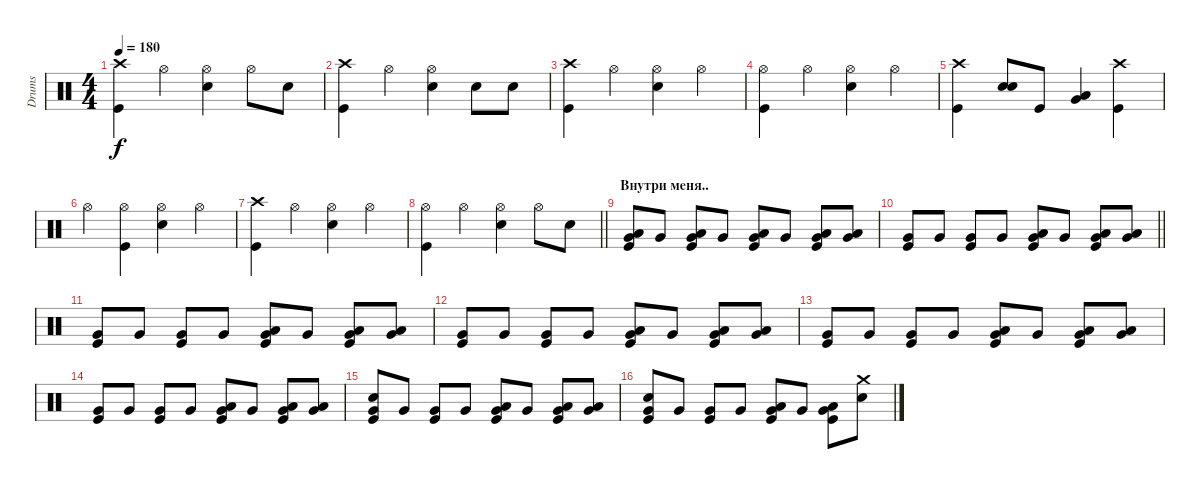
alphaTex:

\track ("Drums" "Drums") {instrument percussion}
\staff {score}
\articulation defaults
\ts (4 4)
\tempo 180
\clef neutral
\ks c
("Kick (hit)" "Crash high (hit)").4{dy f} "Hi-Hat (open)".4 ("Snare (hit) 2" "Hi-Hat (open)").4 "Hi-Hat (open)".8 "Snare (hit) 2".8 |
("Kick (hit)" "Crash high (hit)").4 "Hi-Hat (open)".4 ("Snare (hit) 2" "Hi-Hat (open)").4 "Snare (hit) 2".8 "Snare (hit) 2".8 |
("Kick (hit)" "Crash high (hit)").4 "Hi-Hat (open)".4 ("Snare (hit) 2" "Hi-Hat (open)").4 "Hi-Hat (open)".4 |
("Kick (hit)" "Hi-Hat (open)").4 "Hi-Hat (open)".4 ("Snare (hit) 2" "Hi-Hat (open)").4 "Hi-Hat (open)".4 |
("Kick (hit)" "Crash high (hit)").4 ("Snare (hit) 2" "Snare (hit) 2").8{bd 60} "Kick (hit)".8 ("Low Tom (hit)" "Very Low Tom (hit)").4{bd 60} ("Kick (hit)" "Crash high (hit)").4 |
"Hi-Hat (open)".4 ("Kick (hit)" "Hi-Hat (open)").4 ("Snare (hit) 2" "Hi-Hat (open)").4 "Hi-Hat (open)".4 |
("Kick (hit)" "Crash high (hit)").4 "Hi-Hat (open)".4 ("Snare (hit) 2" "Hi-Hat (open)").4 "Hi-Hat (open)".4 |
\barLineRight lightlight
("Kick (hit)" "Hi-Hat (open)").4 "Hi-Hat (open)".4 ("Snare (hit) 2" "Hi-Hat (open)").4 "Hi-Hat (open)".8 "Snare (hit) 2".8 |
\section ("" "Внутри меня..")
("Kick (hit)" "Very Low Tom (hit)" "Low Tom (hit)").8{bd 60} "Very Low Tom (hit)".8 ("Kick (hit)" "Very Low Tom (hit)" "Low Tom (hit)").8{bd 60} "Very Low Tom (hit)".8 ("Kick (hit)" "Very Low Tom (hit)" "Low Tom (hit)").8{bd 60} "Very Low Tom (hit)".8 ("Kick (hit)" "Very Low Tom (hit)" "Low Tom (hit)").8{bd 60} ("Very Low Tom (hit)" "Low Tom (hit)").8{bd 60} |
\barLineRight lightlight
("Kick (hit)" "Very Low Tom (hit)").8{bd 60} "Very Low Tom (hit)".8 ("Kick (hit)" "Very Low Tom (hit)").8{bd 60} "Very Low Tom (hit)".8 ("Kick (hit)" "Very Low Tom (hit)" "Low Tom (hit)").8{bd 60} "Very Low Tom (hit)".8 ("Kick (hit)" "Very Low Tom (hit)" "Low Tom (hit)").8{bd 60} ("Very Low Tom (hit)" "Low Tom (hit)").8{bd 60} |
("Kick (hit)" "Very Low Tom (hit)").8{bd 60} "Very Low Tom (hit)".8 ("Kick (hit)" "Very Low Tom (hit)").8{bd 60} "Very Low Tom (hit)".8 ("Kick (hit)" "Very Low Tom (hit)" "Low Tom (hit)").8{bd 60} "Very Low Tom (hit)".8 ("Kick (hit)" "Very Low Tom (hit)" "Low Tom (hit)").8{bd 60} ("Very Low Tom (hit)" "Low Tom (hit)").8{bd 60} |
("Kick (hit)" "Very Low Tom (hit)").8{bd 60} "Very Low Tom (hit)".8 ("Kick (hit)" "Very Low Tom (hit)").8{bd 60} "Very Low Tom (hit)".8 ("Kick (hit)" "Very Low Tom (hit)" "Low Tom (hit)").8{bd 60} "Very Low Tom (hit)".8 ("Kick (hit)" "Very Low Tom (hit)" "Low Tom (hit)").8{bd 60} ("Very Low Tom (hit)" "Low Tom (hit)").8{bd 60} |
("Kick (hit)" "Very Low Tom (hit)").8{bd 60} "Very Low Tom (hit)".8 ("Kick (hit)" "Very Low Tom (hit)").8{bd 60} "Very Low Tom (hit)".8 ("Kick (hit)" "Very Low Tom (hit)" "Low Tom (hit)").8{bd 60} "Very Low Tom (hit)".8 ("Kick (hit)" "Very Low Tom (hit)" "Low Tom (hit)").8{bd 60} ("Very Low Tom (hit)" "Low Tom (hit)").8{bd 60} |
("Kick (hit)" "Very Low Tom (hit)").8{bd 60} "Very Low Tom (hit)".8 ("Kick (hit)" "Very Low Tom (hit)").8{bd 60} "Very Low Tom (hit)".8 ("Kick (hit)" "Very Low Tom (hit)" "Low Tom (hit)").8{bd 60} "Very Low Tom (hit)".8 ("Kick (hit)" "Very Low Tom (hit)" "Low Tom (hit)").8{bd 60} ("Very Low Tom (hit)" "Low Tom (hit)").8{bd 60} |
("Kick (hit)" "Snare (hit) 2" "Very Low Tom (hit)").8{bd 60} "Very Low Tom (hit)".8 ("Kick (hit)" "Very Low Tom (hit)").8{bd 60} "Very Low Tom (hit)".8 ("Kick (hit)" "Very Low Tom (hit)" "Low Tom (hit)").8{bd 60} "Very Low Tom (hit)".8 ("Kick (hit)" "Very Low Tom (hit)" "Low Tom (hit)").8{bd 60} ("Very Low Tom (hit)" "Low Tom (hit)").8{bd 60} |
("Kick (hit)" "Snare (hit) 2" "Very Low Tom (hit)").8{bd 60} "Very Low Tom (hit)".8 ("Kick (hit)" "Very Low Tom (hit)").8{bd 60} "Very Low Tom (hit)".8 ("Kick (hit)" "Very Low Tom (hit)" "Low Tom (hit)").8{bd 60} "Very Low Tom (hit)".8 ("Kick (hit)" "Very Low Tom (hit)" "Low Tom (hit)").8{bd 60} ("Snare (hit) 2" "Crash medium (hit)").8{bd 60}
